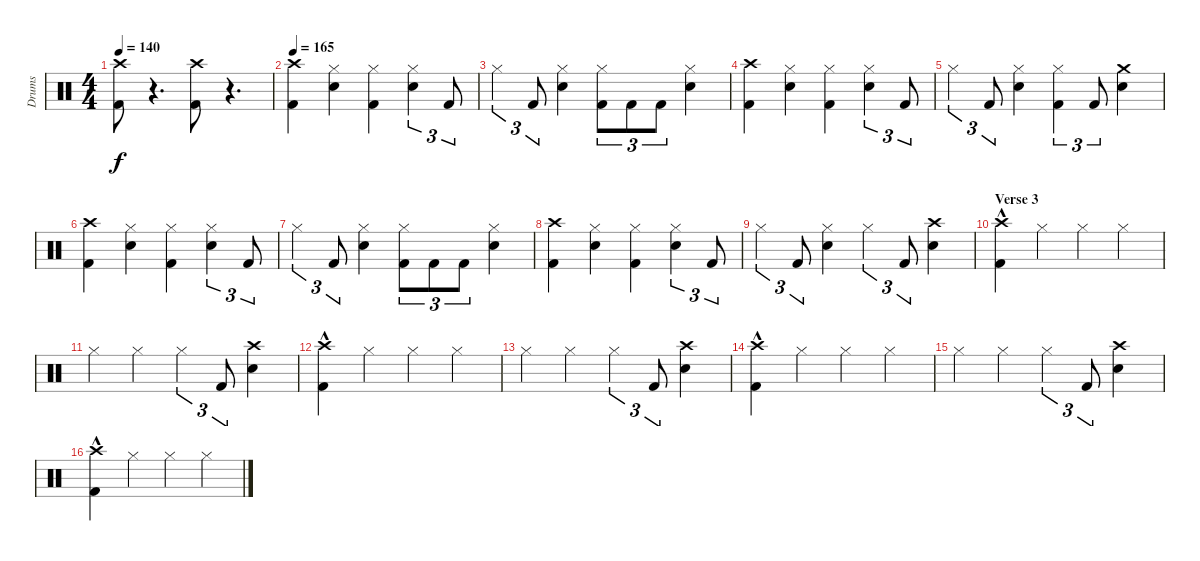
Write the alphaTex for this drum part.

\track ("Drums" "Drums") {instrument percussion}
\staff {score}
\articulation defaults
\ts (4 4)
\tempo 140
\clef neutral
\ks c
("Kick (hit) 2" "Crash high (hit)").8{dy f} r.4{d} ("Kick (hit) 2" "Crash high (hit)").8 r.4{d} |
\tempo 165
("Kick (hit) 2" "Crash high (hit)").4 ("Snare (hit) 2" "Hi-Hat (closed)").4 ("Kick (hit) 2" "Hi-Hat (closed)").4 ("Snare (hit) 2" "Hi-Hat (closed)").4{tu (3 2)} "Kick (hit) 2".8{tu (3 2)} |
"Hi-Hat (closed)".4{tu (3 2)} "Kick (hit) 2".8{tu (3 2)} ("Snare (hit) 2" "Hi-Hat (closed)").4 ("Kick (hit) 2" "Hi-Hat (closed)").8{tu (3 2)} "Kick (hit) 2".8{tu (3 2)} "Kick (hit) 2".8{tu (3 2)} ("Snare (hit) 2" "Hi-Hat (closed)").4 |
("Kick (hit) 2" "Crash high (hit)").4 ("Snare (hit) 2" "Hi-Hat (closed)").4 ("Kick (hit) 2" "Hi-Hat (closed)").4 ("Snare (hit) 2" "Hi-Hat (closed)").4{tu (3 2)} "Kick (hit) 2".8{tu (3 2)} |
"Hi-Hat (closed)".4{tu (3 2)} "Kick (hit) 2".8{tu (3 2)} ("Snare (hit) 2" "Hi-Hat (closed)").4 ("Kick (hit) 2" "Hi-Hat (closed)").4{tu (3 2)} "Kick (hit) 2".8{tu (3 2)} ("Snare (hit) 2" "Crash medium (hit)").4 |
("Kick (hit) 2" "Crash high (hit)").4 ("Snare (hit) 2" "Hi-Hat (closed)").4 ("Kick (hit) 2" "Hi-Hat (closed)").4 ("Snare (hit) 2" "Hi-Hat (closed)").4{tu (3 2)} "Kick (hit) 2".8{tu (3 2)} |
"Hi-Hat (closed)".4{tu (3 2)} "Kick (hit) 2".8{tu (3 2)} ("Snare (hit) 2" "Hi-Hat (closed)").4 ("Kick (hit) 2" "Hi-Hat (closed)").8{tu (3 2)} "Kick (hit) 2".8{tu (3 2)} "Kick (hit) 2".8{tu (3 2)} ("Snare (hit) 2" "Hi-Hat (closed)").4 |
("Kick (hit) 2" "Crash high (hit)").4 ("Snare (hit) 2" "Hi-Hat (closed)").4 ("Kick (hit) 2" "Hi-Hat (closed)").4 ("Snare (hit) 2" "Hi-Hat (closed)").4{tu (3 2)} "Kick (hit) 2".8{tu (3 2)} |
"Hi-Hat (closed)".4{tu (3 2)} "Kick (hit) 2".8{tu (3 2)} ("Snare (hit) 2" "Hi-Hat (closed)").4 "Hi-Hat (closed)".4{tu (3 2)} "Kick (hit) 2".8{tu (3 2)} ("Snare (hit) 2" "Crash high (hit)").4 |
\section ("" "Verse 3")
("Kick (hit) 2" "Crash high (hit)"{hac}).4 "Hi-Hat (closed)".4 "Hi-Hat (closed)".4 "Hi-Hat (closed)".4 |
"Hi-Hat (closed)".4 "Hi-Hat (closed)".4 "Hi-Hat (closed)".4{tu (3 2)} "Kick (hit) 2".8{tu (3 2)} ("Snare (hit) 2" "Crash high (hit)").4 |
("Kick (hit) 2" "Crash high (hit)"{hac}).4 "Hi-Hat (closed)".4 "Hi-Hat (closed)".4 "Hi-Hat (closed)".4 |
"Hi-Hat (closed)".4 "Hi-Hat (closed)".4 "Hi-Hat (closed)".4{tu (3 2)} "Kick (hit) 2".8{tu (3 2)} ("Snare (hit) 2" "Crash high (hit)").4 |
("Kick (hit) 2" "Crash high (hit)"{hac}).4 "Hi-Hat (closed)".4 "Hi-Hat (closed)".4 "Hi-Hat (closed)".4 |
"Hi-Hat (closed)".4 "Hi-Hat (closed)".4 "Hi-Hat (closed)".4{tu (3 2)} "Kick (hit) 2".8{tu (3 2)} ("Snare (hit) 2" "Crash high (hit)").4 |
("Kick (hit) 2" "Crash high (hit)"{hac}).4 "Hi-Hat (closed)".4 "Hi-Hat (closed)".4 "Hi-Hat (closed)".4
